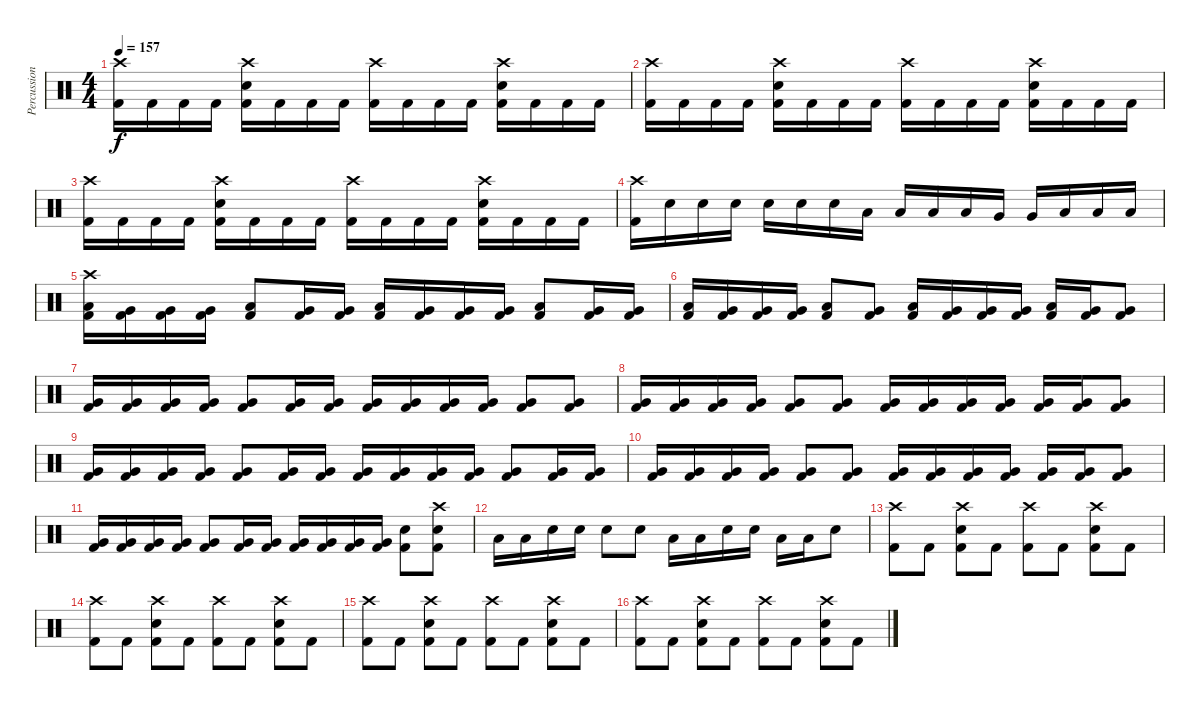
\track ("Percussion" "Percussion") {instrument percussion}
\staff {score}
\articulation defaults
\ts (4 4)
\tempo 157
\clef neutral
\ks c
("Crash high (hit)" "Kick (hit) 2").16{dy f} "Kick (hit) 2".16 "Kick (hit) 2".16 "Kick (hit) 2".16 ("Crash high (hit)" "Electric Snare (hit)" "Kick (hit) 2").16 "Kick (hit) 2".16 "Kick (hit) 2".16 "Kick (hit) 2".16 ("Crash high (hit)" "Kick (hit) 2").16 "Kick (hit) 2".16 "Kick (hit) 2".16 "Kick (hit) 2".16 ("Crash high (hit)" "Electric Snare (hit)" "Kick (hit) 2").16 "Kick (hit) 2".16 "Kick (hit) 2".16 "Kick (hit) 2".16 |
("Crash high (hit)" "Kick (hit) 2").16 "Kick (hit) 2".16 "Kick (hit) 2".16 "Kick (hit) 2".16 ("Crash high (hit)" "Electric Snare (hit)" "Kick (hit) 2").16 "Kick (hit) 2".16 "Kick (hit) 2".16 "Kick (hit) 2".16 ("Crash high (hit)" "Kick (hit) 2").16 "Kick (hit) 2".16 "Kick (hit) 2".16 "Kick (hit) 2".16 ("Crash high (hit)" "Electric Snare (hit)" "Kick (hit) 2").16 "Kick (hit) 2".16 "Kick (hit) 2".16 "Kick (hit) 2".16 |
("Crash high (hit)" "Kick (hit) 2").16 "Kick (hit) 2".16 "Kick (hit) 2".16 "Kick (hit) 2".16 ("Crash high (hit)" "Electric Snare (hit)" "Kick (hit) 2").16 "Kick (hit) 2".16 "Kick (hit) 2".16 "Kick (hit) 2".16 ("Crash high (hit)" "Kick (hit) 2").16 "Kick (hit) 2".16 "Kick (hit) 2".16 "Kick (hit) 2".16 ("Crash high (hit)" "Electric Snare (hit)" "Kick (hit) 2").16 "Kick (hit) 2".16 "Kick (hit) 2".16 "Kick (hit) 2".16 |
("Crash high (hit)" "Kick (hit) 2").16 "Electric Snare (hit)".16 "Electric Snare (hit)".16 "Electric Snare (hit)".16 "Electric Snare (hit)".16 "Electric Snare (hit)".16 "Electric Snare (hit)".16 "Low Tom (hit)".16 "Low Tom (hit)".16 "Low Tom (hit)".16 "Low Tom (hit)".16 "Very Low Tom (hit)".16 "Very Low Tom (hit)".16 "Low Floor Tom (hit)".16 "Low Floor Tom (hit)".16 "Low Floor Tom (hit)".16 |
("Crash high (hit)" "Low Floor Tom (hit)" "Kick (hit) 2").16 ("Very Low Tom (hit)" "Kick (hit) 2").16 ("Very Low Tom (hit)" "Kick (hit) 2").16 ("Very Low Tom (hit)" "Kick (hit) 2").16 ("Low Floor Tom (hit)" "Kick (hit) 2").8 ("Very Low Tom (hit)" "Kick (hit) 2").16 ("Very Low Tom (hit)" "Kick (hit) 2").16 ("Low Floor Tom (hit)" "Kick (hit) 2").16 ("Very Low Tom (hit)" "Kick (hit) 2").16 ("Very Low Tom (hit)" "Kick (hit) 2").16 ("Very Low Tom (hit)" "Kick (hit) 2").16 ("Low Floor Tom (hit)" "Kick (hit) 2").8 ("Very Low Tom (hit)" "Kick (hit) 2").16 ("Very Low Tom (hit)" "Kick (hit) 2").16 |
("Low Floor Tom (hit)" "Kick (hit) 2").16 ("Very Low Tom (hit)" "Kick (hit) 2").16 ("Very Low Tom (hit)" "Kick (hit) 2").16 ("Very Low Tom (hit)" "Kick (hit) 2").16 ("Low Floor Tom (hit)" "Kick (hit) 2").8 ("Very Low Tom (hit)" "Kick (hit) 2").8 ("Low Floor Tom (hit)" "Kick (hit) 2").16 ("Very Low Tom (hit)" "Kick (hit) 2").16 ("Very Low Tom (hit)" "Kick (hit) 2").16 ("Very Low Tom (hit)" "Kick (hit) 2").16 ("Low Floor Tom (hit)" "Kick (hit) 2").16 ("Very Low Tom (hit)" "Kick (hit) 2").16 ("Very Low Tom (hit)" "Kick (hit) 2").8 |
("Very Low Tom (hit)" "Kick (hit) 2").16 ("Very Low Tom (hit)" "Kick (hit) 2").16 ("Very Low Tom (hit)" "Kick (hit) 2").16 ("Very Low Tom (hit)" "Kick (hit) 2").16 ("Very Low Tom (hit)" "Kick (hit) 2").8 ("Very Low Tom (hit)" "Kick (hit) 2").16 ("Very Low Tom (hit)" "Kick (hit) 2").16 ("Very Low Tom (hit)" "Kick (hit) 2").16 ("Very Low Tom (hit)" "Kick (hit) 2").16 ("Very Low Tom (hit)" "Kick (hit) 2").16 ("Very Low Tom (hit)" "Kick (hit) 2").16 ("Very Low Tom (hit)" "Kick (hit) 2").8 ("Very Low Tom (hit)" "Kick (hit) 2").8 |
("Very Low Tom (hit)" "Kick (hit) 2").16 ("Very Low Tom (hit)" "Kick (hit) 2").16 ("Very Low Tom (hit)" "Kick (hit) 2").16 ("Very Low Tom (hit)" "Kick (hit) 2").16 ("Very Low Tom (hit)" "Kick (hit) 2").8 ("Very Low Tom (hit)" "Kick (hit) 2").8 ("Very Low Tom (hit)" "Kick (hit) 2").16 ("Very Low Tom (hit)" "Kick (hit) 2").16 ("Very Low Tom (hit)" "Kick (hit) 2").16 ("Very Low Tom (hit)" "Kick (hit) 2").16 ("Very Low Tom (hit)" "Kick (hit) 2").16 ("Very Low Tom (hit)" "Kick (hit) 2").16 ("Very Low Tom (hit)" "Kick (hit) 2").8 |
("Very Low Tom (hit)" "Kick (hit) 2").16 ("Very Low Tom (hit)" "Kick (hit) 2").16 ("Very Low Tom (hit)" "Kick (hit) 2").16 ("Very Low Tom (hit)" "Kick (hit) 2").16 ("Very Low Tom (hit)" "Kick (hit) 2").8 ("Very Low Tom (hit)" "Kick (hit) 2").16 ("Very Low Tom (hit)" "Kick (hit) 2").16 ("Very Low Tom (hit)" "Kick (hit) 2").16 ("Very Low Tom (hit)" "Kick (hit) 2").16 ("Very Low Tom (hit)" "Kick (hit) 2").16 ("Very Low Tom (hit)" "Kick (hit) 2").16 ("Very Low Tom (hit)" "Kick (hit) 2").8 ("Very Low Tom (hit)" "Kick (hit) 2").16 ("Very Low Tom (hit)" "Kick (hit) 2").16 |
("Very Low Tom (hit)" "Kick (hit) 2").16 ("Very Low Tom (hit)" "Kick (hit) 2").16 ("Very Low Tom (hit)" "Kick (hit) 2").16 ("Very Low Tom (hit)" "Kick (hit) 2").16 ("Very Low Tom (hit)" "Kick (hit) 2").8 ("Very Low Tom (hit)" "Kick (hit) 2").8 ("Very Low Tom (hit)" "Kick (hit) 2").16 ("Very Low Tom (hit)" "Kick (hit) 2").16 ("Very Low Tom (hit)" "Kick (hit) 2").16 ("Very Low Tom (hit)" "Kick (hit) 2").16 ("Very Low Tom (hit)" "Kick (hit) 2").16 ("Very Low Tom (hit)" "Kick (hit) 2").16 ("Very Low Tom (hit)" "Kick (hit) 2").8 |
("Very Low Tom (hit)" "Kick (hit) 2").16 ("Very Low Tom (hit)" "Kick (hit) 2").16 ("Very Low Tom (hit)" "Kick (hit) 2").16 ("Very Low Tom (hit)" "Kick (hit) 2").16 ("Very Low Tom (hit)" "Kick (hit) 2").8 ("Very Low Tom (hit)" "Kick (hit) 2").16 ("Very Low Tom (hit)" "Kick (hit) 2").16 ("Very Low Tom (hit)" "Kick (hit) 2").16 ("Very Low Tom (hit)" "Kick (hit) 2").16 ("Very Low Tom (hit)" "Kick (hit) 2").16 ("Very Low Tom (hit)" "Kick (hit) 2").16 ("Electric Snare (hit)" "Kick (hit) 2").8 ("Crash high (hit)" "Electric Snare (hit)" "Kick (hit) 2").8 |
"Low Tom (hit)".16 "Low Tom (hit)".16 "Electric Snare (hit)".16 "Electric Snare (hit)".16 "Electric Snare (hit)".8 "Electric Snare (hit)".8 "Low Tom (hit)".16 "Low Tom (hit)".16 "Electric Snare (hit)".16 "Electric Snare (hit)".16 "Low Tom (hit)".16 "Low Tom (hit)".16 "Electric Snare (hit)".8 |
("Crash high (hit)" "Kick (hit) 2").8 "Kick (hit) 2".8 ("Crash high (hit)" "Electric Snare (hit)" "Kick (hit) 2").8 "Kick (hit) 2".8 ("Crash high (hit)" "Kick (hit) 2").8 "Kick (hit) 2".8 ("Crash high (hit)" "Electric Snare (hit)" "Kick (hit) 2").8 "Kick (hit) 2".8 |
("Crash high (hit)" "Kick (hit) 2").8 "Kick (hit) 2".8 ("Crash high (hit)" "Electric Snare (hit)" "Kick (hit) 2").8 "Kick (hit) 2".8 ("Crash high (hit)" "Kick (hit) 2").8 "Kick (hit) 2".8 ("Crash high (hit)" "Electric Snare (hit)" "Kick (hit) 2").8 "Kick (hit) 2".8 |
("Crash high (hit)" "Kick (hit) 2").8 "Kick (hit) 2".8 ("Crash high (hit)" "Electric Snare (hit)" "Kick (hit) 2").8 "Kick (hit) 2".8 ("Crash high (hit)" "Kick (hit) 2").8 "Kick (hit) 2".8 ("Crash high (hit)" "Electric Snare (hit)" "Kick (hit) 2").8 "Kick (hit) 2".8 |
("Crash high (hit)" "Kick (hit) 2").8 "Kick (hit) 2".8 ("Crash high (hit)" "Electric Snare (hit)" "Kick (hit) 2").8 "Kick (hit) 2".8 ("Crash high (hit)" "Kick (hit) 2").8 "Kick (hit) 2".8 ("Crash high (hit)" "Electric Snare (hit)" "Kick (hit) 2").8 "Kick (hit) 2".8
